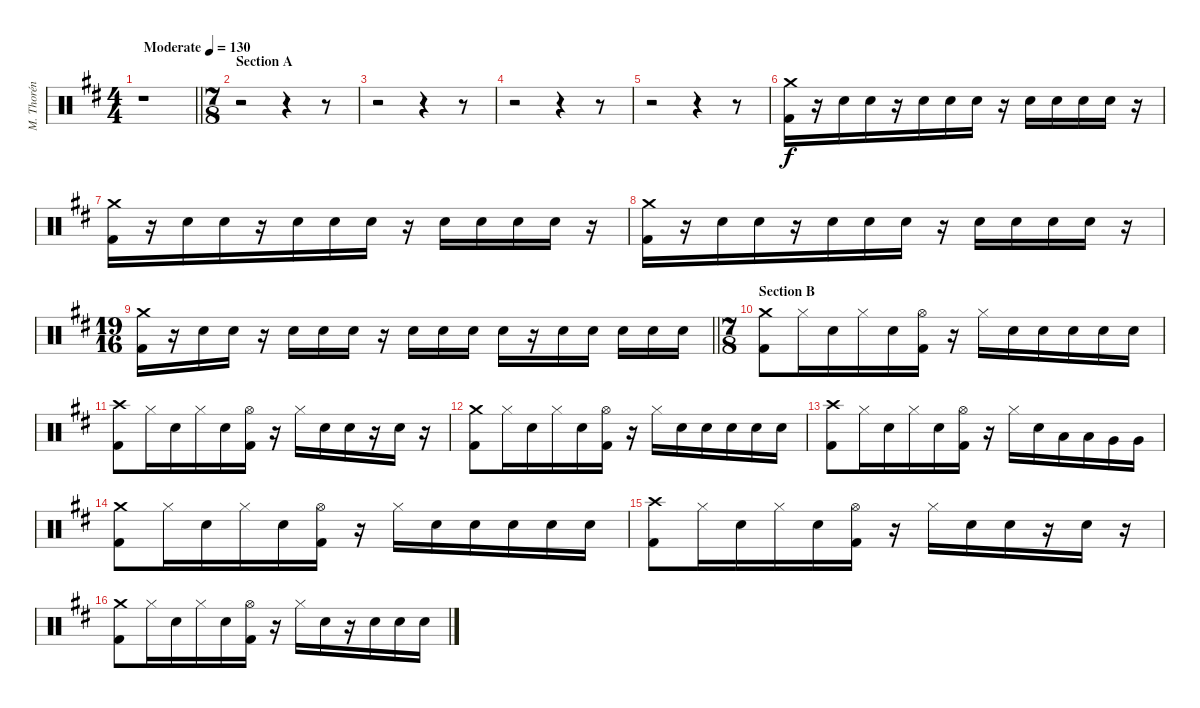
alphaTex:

\track ("M. Thorén (Drums)" "M. Thorén ") {instrument percussion}
\staff {score}
\articulation defaults
\ts (4 4)
\tempo (130 "Moderate")
\clef neutral
\barLineRight lightlight
\ks bminor
r.1{dy f} |
\ts (7 8)
\section ("" "Section A")
r.2 r.4 r.8 |
r.2 r.4 r.8 |
r.2 r.4 r.8 |
r.2 r.4 r.8 |
("Crash medium (hit)" "Kick (hit) 2").16 r.16 "Electric Snare (hit)".16 "Electric Snare (hit)".16 r.16 "Electric Snare (hit)".16 "Electric Snare (hit)".16 "Electric Snare (hit)".16 r.16 "Electric Snare (hit)".16 "Electric Snare (hit)".16 "Electric Snare (hit)".16 "Electric Snare (hit)".16 r.16 |
("Crash medium (hit)" "Kick (hit) 2").16 r.16 "Electric Snare (hit)".16 "Electric Snare (hit)".16 r.16 "Electric Snare (hit)".16 "Electric Snare (hit)".16 "Electric Snare (hit)".16 r.16 "Electric Snare (hit)".16 "Electric Snare (hit)".16 "Electric Snare (hit)".16 "Electric Snare (hit)".16 r.16 |
("Crash medium (hit)" "Kick (hit) 2").16 r.16 "Electric Snare (hit)".16 "Electric Snare (hit)".16 r.16 "Electric Snare (hit)".16 "Electric Snare (hit)".16 "Electric Snare (hit)".16 r.16 "Electric Snare (hit)".16 "Electric Snare (hit)".16 "Electric Snare (hit)".16 "Electric Snare (hit)".16 r.16 |
\ts (19 16)
\barLineRight lightlight
("Crash medium (hit)" "Kick (hit) 2").16 r.16 "Electric Snare (hit)".16 "Electric Snare (hit)".16 r.16 "Electric Snare (hit)".16 "Electric Snare (hit)".16 "Electric Snare (hit)".16 r.16 "Electric Snare (hit)".16 "Electric Snare (hit)".16 "Electric Snare (hit)".16 "Electric Snare (hit)".16 r.16 "Electric Snare (hit)".16 "Electric Snare (hit)".16 "Electric Snare (hit)".16 "Electric Snare (hit)".16 "Electric Snare (hit)".16 |
\ts (7 8)
\section ("" "Section B")
("Crash medium (hit)" "Kick (hit) 2").8 "Hi-Hat (closed)".16 "Electric Snare (hit)".16 "Hi-Hat (closed)".16 "Electric Snare (hit)".16 ("Hi-Hat (open)" "Kick (hit) 2").16 r.16 "Hi-Hat (closed)".16 "Electric Snare (hit)".16 "Electric Snare (hit)".16 "Electric Snare (hit)".16 "Electric Snare (hit)".16 "Electric Snare (hit)".16 |
("Crash high (hit)" "Kick (hit) 2").8 "Hi-Hat (closed)".16 "Electric Snare (hit)".16 "Hi-Hat (closed)".16 "Electric Snare (hit)".16 ("Hi-Hat (open)" "Kick (hit) 2").16 r.16 "Hi-Hat (closed)".16 "Electric Snare (hit)".16 "Electric Snare (hit)".16 r.16 "Electric Snare (hit)".16 r.16 |
("Crash medium (hit)" "Kick (hit) 2").8 "Hi-Hat (closed)".16 "Electric Snare (hit)".16 "Hi-Hat (closed)".16 "Electric Snare (hit)".16 ("Hi-Hat (open)" "Kick (hit) 2").16 r.16 "Hi-Hat (closed)".16 "Electric Snare (hit)".16 "Electric Snare (hit)".16 "Electric Snare (hit)".16 "Electric Snare (hit)".16 "Electric Snare (hit)".16 |
("Crash high (hit)" "Kick (hit) 2").8 "Hi-Hat (closed)".16 "Electric Snare (hit)".16 "Hi-Hat (closed)".16 "Electric Snare (hit)".16 ("Hi-Hat (open)" "Kick (hit) 2").16 r.16 "Hi-Hat (closed)".16 "Electric Snare (hit)".16 "Low Tom (hit)".16 "Low Tom (hit)".16 "Very Low Tom (hit)".16 "Very Low Tom (hit)".16 |
("Crash medium (hit)" "Kick (hit) 2").8 "Hi-Hat (closed)".16 "Electric Snare (hit)".16 "Hi-Hat (closed)".16 "Electric Snare (hit)".16 ("Hi-Hat (open)" "Kick (hit) 2").16 r.16 "Hi-Hat (closed)".16 "Electric Snare (hit)".16 "Electric Snare (hit)".16 "Electric Snare (hit)".16 "Electric Snare (hit)".16 "Electric Snare (hit)".16 |
("Crash high (hit)" "Kick (hit) 2").8 "Hi-Hat (closed)".16 "Electric Snare (hit)".16 "Hi-Hat (closed)".16 "Electric Snare (hit)".16 ("Hi-Hat (open)" "Kick (hit) 2").16 r.16 "Hi-Hat (closed)".16 "Electric Snare (hit)".16 "Electric Snare (hit)".16 r.16 "Electric Snare (hit)".16 r.16 |
("Crash medium (hit)" "Kick (hit) 2").8 "Hi-Hat (closed)".16 "Electric Snare (hit)".16 "Hi-Hat (closed)".16 "Electric Snare (hit)".16 ("Hi-Hat (open)" "Kick (hit) 2").16 r.16 "Hi-Hat (closed)".16 "Electric Snare (hit)".16 r.16 "Electric Snare (hit)".16 "Electric Snare (hit)".16 "Electric Snare (hit)".16
